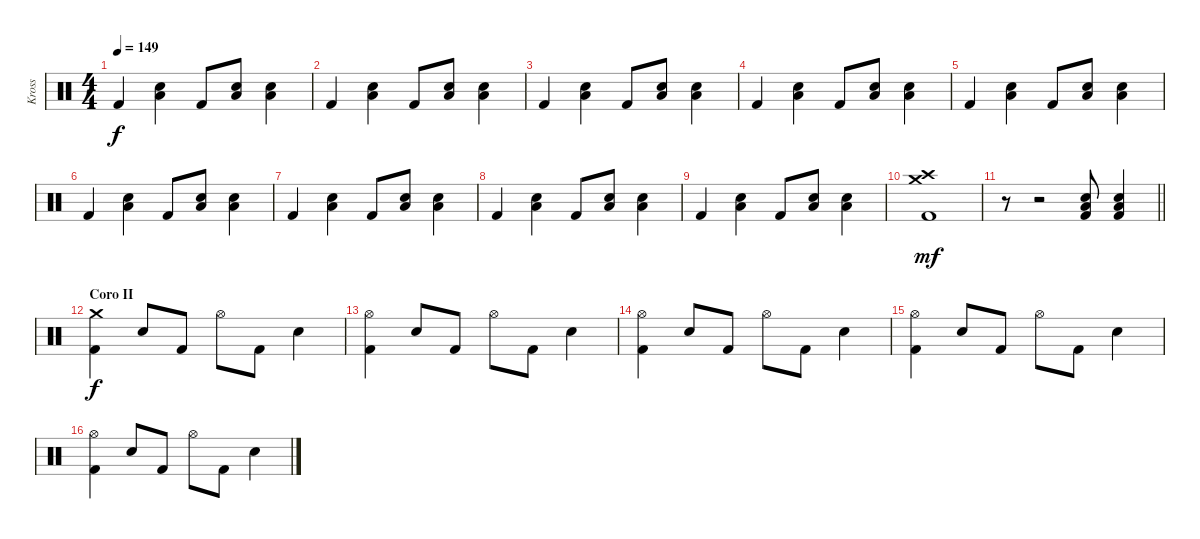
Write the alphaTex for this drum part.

\track ("Kross" "Kross") {instrument percussion}
\staff {score}
\articulation defaults
\ts (4 4)
\tempo 149
\clef neutral
\ks c "Kick (hit) 2".4{dy f}
("Low Floor Tom (hit)" "Electric Snare (hit)").4 "Kick (hit) 2".8 ("Low Floor Tom (hit)" "Electric Snare (hit)").8 ("Low Floor Tom (hit)" "Electric Snare (hit)").4 |
"Kick (hit) 2".4 ("Low Floor Tom (hit)" "Electric Snare (hit)").4 "Kick (hit) 2".8 ("Low Floor Tom (hit)" "Electric Snare (hit)").8 ("Low Floor Tom (hit)" "Electric Snare (hit)").4 |
"Kick (hit) 2".4 ("Low Floor Tom (hit)" "Electric Snare (hit)").4 "Kick (hit) 2".8 ("Low Floor Tom (hit)" "Electric Snare (hit)").8 ("Low Floor Tom (hit)" "Electric Snare (hit)").4 |
"Kick (hit) 2".4 ("Low Floor Tom (hit)" "Electric Snare (hit)").4 "Kick (hit) 2".8 ("Low Floor Tom (hit)" "Electric Snare (hit)").8 ("Low Floor Tom (hit)" "Electric Snare (hit)").4 |
"Kick (hit) 2".4 ("Low Floor Tom (hit)" "Electric Snare (hit)").4 "Kick (hit) 2".8 ("Low Floor Tom (hit)" "Electric Snare (hit)").8 ("Low Floor Tom (hit)" "Electric Snare (hit)").4 |
"Kick (hit) 2".4 ("Low Floor Tom (hit)" "Electric Snare (hit)").4 "Kick (hit) 2".8 ("Low Floor Tom (hit)" "Electric Snare (hit)").8 ("Low Floor Tom (hit)" "Electric Snare (hit)").4 |
"Kick (hit) 2".4 ("Low Floor Tom (hit)" "Electric Snare (hit)").4 "Kick (hit) 2".8 ("Low Floor Tom (hit)" "Electric Snare (hit)").8 ("Low Floor Tom (hit)" "Electric Snare (hit)").4 |
"Kick (hit) 2".4 ("Low Floor Tom (hit)" "Electric Snare (hit)").4 "Kick (hit) 2".8 ("Low Floor Tom (hit)" "Electric Snare (hit)").8 ("Low Floor Tom (hit)" "Electric Snare (hit)").4 |
"Kick (hit) 2".4 ("Low Floor Tom (hit)" "Electric Snare (hit)").4 "Kick (hit) 2".8 ("Low Floor Tom (hit)" "Electric Snare (hit)").8 ("Low Floor Tom (hit)" "Electric Snare (hit)").4 |
("Crash high (hit)" "Crash medium (hit)" "Kick (hit) 2").1{dy mf} |
\barLineRight lightlight
r.8 r.2 ("Low Floor Tom (hit)" "Electric Snare (hit)" "Kick (hit) 2").8 ("Low Floor Tom (hit)" "Electric Snare (hit)" "Kick (hit) 2").4 |
\section ("" "Coro II")
("Crash medium (hit)" "Kick (hit) 2").4{dy f} "Electric Snare (hit)".8 "Kick (hit) 2".8 "Hi-Hat (open)".8 "Kick (hit) 2".8 "Electric Snare (hit)".4 |
("Hi-Hat (open)" "Kick (hit) 2").4 "Electric Snare (hit)".8 "Kick (hit) 2".8 "Hi-Hat (open)".8 "Kick (hit) 2".8 "Electric Snare (hit)".4 |
("Hi-Hat (open)" "Kick (hit) 2").4 "Electric Snare (hit)".8 "Kick (hit) 2".8 "Hi-Hat (open)".8 "Kick (hit) 2".8 "Electric Snare (hit)".4 |
("Hi-Hat (open)" "Kick (hit) 2").4 "Electric Snare (hit)".8 "Kick (hit) 2".8 "Hi-Hat (open)".8 "Kick (hit) 2".8 "Electric Snare (hit)".4 |
("Hi-Hat (open)" "Kick (hit) 2").4 "Electric Snare (hit)".8 "Kick (hit) 2".8 "Hi-Hat (open)".8 "Kick (hit) 2".8 "Electric Snare (hit)".4
